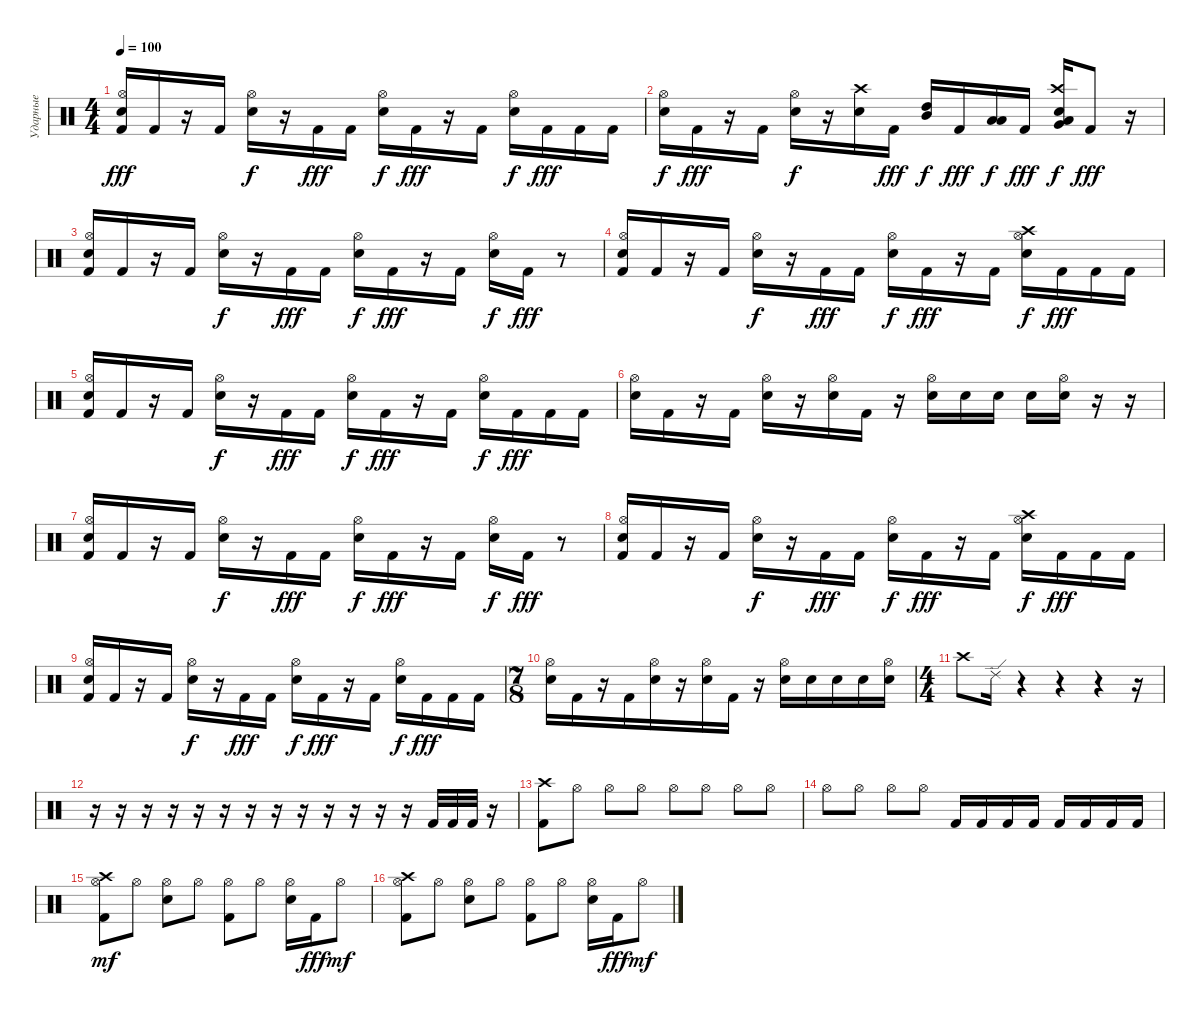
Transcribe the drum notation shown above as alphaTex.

\track ("Ударные" "Ударные") {instrument percussion}
\staff {score}
\articulation defaults
\ts (4 4)
\tempo 100
\clef neutral
\ks c
("Kick (hit) 2" "Hi-Hat (open)" "Electric Snare (hit)").16{dy fff} "Kick (hit) 2".16 r.16 "Kick (hit) 2".16 ("Electric Snare (hit)" "Hi-Hat (open)").16{dy f} r.16 "Kick (hit) 2".16{dy fff} "Kick (hit) 2".16 ("Electric Snare (hit)" "Hi-Hat (open)").16{dy f} "Kick (hit) 2".16{dy fff} r.16 "Kick (hit) 2".16 ("Electric Snare (hit)" "Hi-Hat (open)").16{dy f} "Kick (hit) 2".16{dy fff} "Kick (hit) 2".16 "Kick (hit) 2".16 |
("Electric Snare (hit)" "Hi-Hat (open)").16{dy f} "Kick (hit) 2".16{dy fff} r.16 "Kick (hit) 2".16 ("Electric Snare (hit)" "Hi-Hat (open)").16{dy f} r.16 ("Electric Snare (hit)" "Crash high (hit)").16 "Kick (hit) 2".16{dy fff} ("High Tom (hit)" "Mid Tom (hit)").16{dy f} "Kick (hit) 2".16{dy fff} ("Low Tom (hit)" "Low Tom (hit)").16{dy f} "Kick (hit) 2".16{dy fff} ("Very Low Tom (hit)" "Low Floor Tom (hit)" "Crash high (hit)" "Electric Snare (hit)").16{dy f} "Kick (hit) 2".8{dy fff} r.16 |
("Kick (hit) 2" "Hi-Hat (open)" "Electric Snare (hit)").16 "Kick (hit) 2".16 r.16 "Kick (hit) 2".16 ("Electric Snare (hit)" "Hi-Hat (open)").16{dy f} r.16 "Kick (hit) 2".16{dy fff} "Kick (hit) 2".16 ("Electric Snare (hit)" "Hi-Hat (open)").16{dy f} "Kick (hit) 2".16{dy fff} r.16 "Kick (hit) 2".16 ("Electric Snare (hit)" "Hi-Hat (open)").16{dy f} "Kick (hit) 2".16{dy fff} r.8 |
("Kick (hit) 2" "Hi-Hat (open)" "Electric Snare (hit)").16 "Kick (hit) 2".16 r.16 "Kick (hit) 2".16 ("Electric Snare (hit)" "Hi-Hat (open)").16{dy f} r.16 "Kick (hit) 2".16{dy fff} "Kick (hit) 2".16 ("Electric Snare (hit)" "Hi-Hat (open)").16{dy f} "Kick (hit) 2".16{dy fff} r.16 "Kick (hit) 2".16 ("Electric Snare (hit)" "Hi-Hat (open)" "Crash high (hit)").16{dy f} "Kick (hit) 2".16{dy fff} "Kick (hit) 2".16 "Kick (hit) 2".16 |
("Kick (hit) 2" "Hi-Hat (open)" "Electric Snare (hit)").16 "Kick (hit) 2".16 r.16 "Kick (hit) 2".16 ("Electric Snare (hit)" "Hi-Hat (open)").16{dy f} r.16 "Kick (hit) 2".16{dy fff} "Kick (hit) 2".16 ("Electric Snare (hit)" "Hi-Hat (open)").16{dy f} "Kick (hit) 2".16{dy fff} r.16 "Kick (hit) 2".16 ("Electric Snare (hit)" "Hi-Hat (open)").16{dy f} "Kick (hit) 2".16{dy fff} "Kick (hit) 2".16 "Kick (hit) 2".16 |
("Electric Snare (hit)" "Hi-Hat (open)").16 "Kick (hit) 2".16 r.16 "Kick (hit) 2".16 ("Electric Snare (hit)" "Hi-Hat (open)").16 r.16 ("Electric Snare (hit)" "Hi-Hat (open)").16 "Kick (hit) 2".16 r.16 ("Electric Snare (hit)" "Hi-Hat (open)").16 "Electric Snare (hit)".16 "Electric Snare (hit)".16 "Electric Snare (hit)".16 ("Hi-Hat (open)" "Electric Snare (hit)").16 r.16 r.16 |
("Kick (hit) 2" "Hi-Hat (open)" "Electric Snare (hit)").16 "Kick (hit) 2".16 r.16 "Kick (hit) 2".16 ("Electric Snare (hit)" "Hi-Hat (open)").16{dy f} r.16 "Kick (hit) 2".16{dy fff} "Kick (hit) 2".16 ("Electric Snare (hit)" "Hi-Hat (open)").16{dy f} "Kick (hit) 2".16{dy fff} r.16 "Kick (hit) 2".16 ("Electric Snare (hit)" "Hi-Hat (open)").16{dy f} "Kick (hit) 2".16{dy fff} r.8 |
("Kick (hit) 2" "Hi-Hat (open)" "Electric Snare (hit)").16 "Kick (hit) 2".16 r.16 "Kick (hit) 2".16 ("Electric Snare (hit)" "Hi-Hat (open)").16{dy f} r.16 "Kick (hit) 2".16{dy fff} "Kick (hit) 2".16 ("Electric Snare (hit)" "Hi-Hat (open)").16{dy f} "Kick (hit) 2".16{dy fff} r.16 "Kick (hit) 2".16 ("Electric Snare (hit)" "Hi-Hat (open)" "Crash high (hit)").16{dy f} "Kick (hit) 2".16{dy fff} "Kick (hit) 2".16 "Kick (hit) 2".16 |
("Kick (hit) 2" "Hi-Hat (open)" "Electric Snare (hit)").16 "Kick (hit) 2".16 r.16 "Kick (hit) 2".16 ("Electric Snare (hit)" "Hi-Hat (open)").16{dy f} r.16 "Kick (hit) 2".16{dy fff} "Kick (hit) 2".16 ("Electric Snare (hit)" "Hi-Hat (open)").16{dy f} "Kick (hit) 2".16{dy fff} r.16 "Kick (hit) 2".16 ("Electric Snare (hit)" "Hi-Hat (open)").16{dy f} "Kick (hit) 2".16{dy fff} "Kick (hit) 2".16 "Kick (hit) 2".16 |
\ts (7 8)
("Electric Snare (hit)" "Hi-Hat (open)").16 "Kick (hit) 2".16 r.16 "Kick (hit) 2".16 ("Electric Snare (hit)" "Hi-Hat (open)").16 r.16 ("Electric Snare (hit)" "Hi-Hat (open)").16 "Kick (hit) 2".16 r.16 ("Electric Snare (hit)" "Hi-Hat (open)").16 "Electric Snare (hit)".16 "Electric Snare (hit)".16 "Electric Snare (hit)".16 ("Hi-Hat (open)" "Electric Snare (hit)").16 |
\ts (4 4)
"Crash high (hit)".8 "Ride (edge) 2".16 r.4 r.4 r.4 r.16 |
r.16 r.16 r.16 r.16 r.16 r.16 r.16 r.16 r.16 r.16 r.16 r.16 r.16 "Kick (hit) 2".32 "Kick (hit) 2".32 "Kick (hit) 2".32 r.16 |
("Kick (hit) 2" "Crash high (hit)").8 "Hi-Hat (open)".8 "Hi-Hat (open)".8 "Hi-Hat (open)".8 "Hi-Hat (open)".8 "Hi-Hat (open)".8 "Hi-Hat (open)".8 "Hi-Hat (open)".8 |
"Hi-Hat (open)".8 "Hi-Hat (open)".8 "Hi-Hat (open)".8 "Hi-Hat (open)".8 "Kick (hit) 2".16 "Kick (hit) 2".16 "Kick (hit) 2".16 "Kick (hit) 2".16 "Kick (hit) 2".16 "Kick (hit) 2".16 "Kick (hit) 2".16 "Kick (hit) 2".16 |
("Kick (hit) 2" "Hi-Hat (open)" "Crash high (hit)").8{dy mf} "Hi-Hat (open)".8 ("Electric Snare (hit)" "Hi-Hat (open)").8 "Hi-Hat (open)".8 ("Kick (hit) 2" "Hi-Hat (open)").8 "Hi-Hat (open)".8 ("Electric Snare (hit)" "Hi-Hat (open)").16 "Kick (hit) 2".16{dy fff} "Hi-Hat (open)".8{dy mf} |
("Kick (hit) 2" "Hi-Hat (open)" "Crash high (hit)").8 "Hi-Hat (open)".8 ("Electric Snare (hit)" "Hi-Hat (open)").8 "Hi-Hat (open)".8 ("Kick (hit) 2" "Hi-Hat (open)").8 "Hi-Hat (open)".8 ("Electric Snare (hit)" "Hi-Hat (open)").16 "Kick (hit) 2".16{dy fff} "Hi-Hat (open)".8{dy mf}
